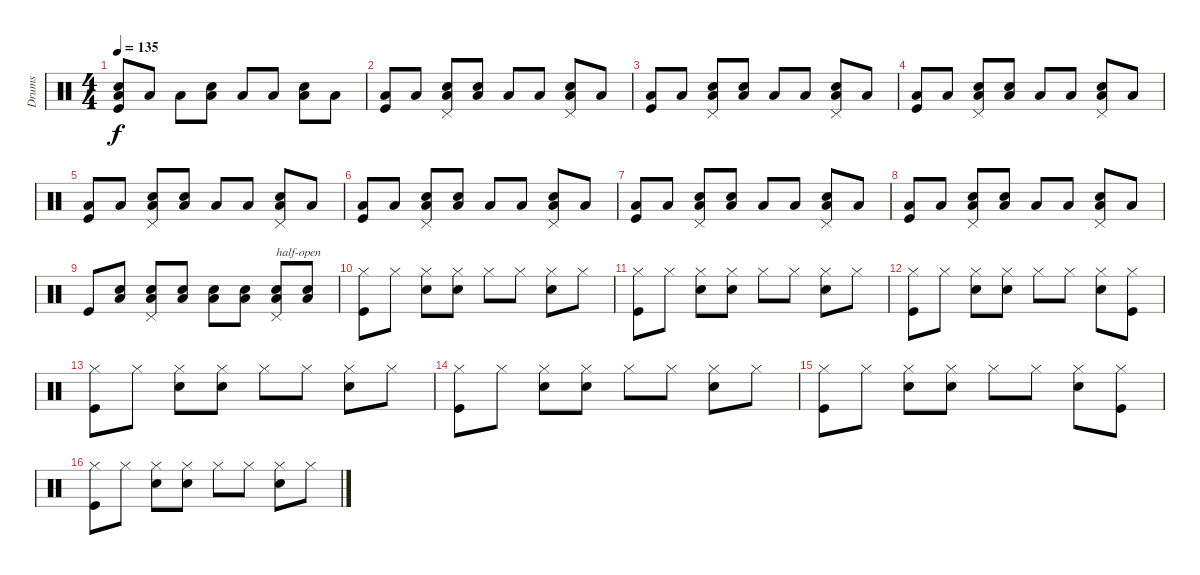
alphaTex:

\track ("Drums" "Drums") {instrument percussion}
\staff {score}
\articulation defaults
\ts (4 4)
\tempo 135
\clef neutral
\ks c
("Snare (hit) 2" "Low Floor Tom (hit)" "Kick (hit)").8{dy f} "Low Floor Tom (hit)".8 "Low Floor Tom (hit)".8 ("Snare (hit) 2" "Low Floor Tom (hit)").8 "Low Floor Tom (hit)".8 "Low Floor Tom (hit)".8 ("Snare (hit) 2" "Low Floor Tom (hit)").8 "Low Floor Tom (hit)".8 |
("Low Floor Tom (hit)" "Kick (hit)").8 "Low Floor Tom (hit)".8 ("Pedal Hi-Hat (hit)" "Snare (hit) 2" "Low Floor Tom (hit)").8 ("Snare (hit) 2" "Low Floor Tom (hit)").8 "Low Floor Tom (hit)".8 "Low Floor Tom (hit)".8 ("Pedal Hi-Hat (hit)" "Snare (hit) 2" "Low Floor Tom (hit)").8 "Low Floor Tom (hit)".8 |
("Low Floor Tom (hit)" "Kick (hit)").8 "Low Floor Tom (hit)".8 ("Pedal Hi-Hat (hit)" "Snare (hit) 2" "Low Floor Tom (hit)").8 ("Snare (hit) 2" "Low Floor Tom (hit)").8 "Low Floor Tom (hit)".8 "Low Floor Tom (hit)".8 ("Pedal Hi-Hat (hit)" "Snare (hit) 2" "Low Floor Tom (hit)").8 "Low Floor Tom (hit)".8 |
("Low Floor Tom (hit)" "Kick (hit)").8 "Low Floor Tom (hit)".8 ("Pedal Hi-Hat (hit)" "Snare (hit) 2" "Low Floor Tom (hit)").8 ("Snare (hit) 2" "Low Floor Tom (hit)").8 "Low Floor Tom (hit)".8 "Low Floor Tom (hit)".8 ("Pedal Hi-Hat (hit)" "Snare (hit) 2" "Low Floor Tom (hit)").8 "Low Floor Tom (hit)".8 |
("Low Floor Tom (hit)" "Kick (hit)").8 "Low Floor Tom (hit)".8 ("Pedal Hi-Hat (hit)" "Snare (hit) 2" "Low Floor Tom (hit)").8 ("Snare (hit) 2" "Low Floor Tom (hit)").8 "Low Floor Tom (hit)".8 "Low Floor Tom (hit)".8 ("Pedal Hi-Hat (hit)" "Snare (hit) 2" "Low Floor Tom (hit)").8 "Low Floor Tom (hit)".8 |
("Low Floor Tom (hit)" "Kick (hit)").8 "Low Floor Tom (hit)".8 ("Pedal Hi-Hat (hit)" "Snare (hit) 2" "Low Floor Tom (hit)").8 ("Snare (hit) 2" "Low Floor Tom (hit)").8 "Low Floor Tom (hit)".8 "Low Floor Tom (hit)".8 ("Pedal Hi-Hat (hit)" "Snare (hit) 2" "Low Floor Tom (hit)").8 "Low Floor Tom (hit)".8 |
("Low Floor Tom (hit)" "Kick (hit)").8 "Low Floor Tom (hit)".8 ("Pedal Hi-Hat (hit)" "Snare (hit) 2" "Low Floor Tom (hit)").8 ("Snare (hit) 2" "Low Floor Tom (hit)").8 "Low Floor Tom (hit)".8 "Low Floor Tom (hit)".8 ("Pedal Hi-Hat (hit)" "Snare (hit) 2" "Low Floor Tom (hit)").8 "Low Floor Tom (hit)".8 |
("Low Floor Tom (hit)" "Kick (hit)").8 "Low Floor Tom (hit)".8 ("Pedal Hi-Hat (hit)" "Snare (hit) 2" "Low Floor Tom (hit)").8 ("Snare (hit) 2" "Low Floor Tom (hit)").8 "Low Floor Tom (hit)".8 "Low Floor Tom (hit)".8 ("Pedal Hi-Hat (hit)" "Snare (hit) 2" "Low Floor Tom (hit)").8 "Low Floor Tom (hit)".8 |
"Kick (hit)".8 ("Snare (hit) 2" "Low Floor Tom (hit)").8 ("Pedal Hi-Hat (hit)" "Snare (hit) 2" "Low Floor Tom (hit)").8 ("Snare (hit) 2" "Low Floor Tom (hit)").8 ("Snare (hit) 2" "Low Floor Tom (hit)").8 ("Snare (hit) 2" "Low Floor Tom (hit)").8 ("Pedal Hi-Hat (hit)" "Snare (hit) 2" "Low Floor Tom (hit)").8{txt "half-open"} ("Snare (hit) 2" "Low Floor Tom (hit)").8 |
("Hi-Hat (closed)" "Kick (hit)").8 "Hi-Hat (closed)".8 ("Hi-Hat (closed)" "Snare (hit) 2").8 ("Hi-Hat (closed)" "Snare (hit) 2").8 "Hi-Hat (closed)".8 "Hi-Hat (closed)".8 ("Hi-Hat (closed)" "Snare (hit) 2").8 "Hi-Hat (closed)".8 |
("Hi-Hat (closed)" "Kick (hit)").8 "Hi-Hat (closed)".8 ("Hi-Hat (closed)" "Snare (hit) 2").8 ("Hi-Hat (closed)" "Snare (hit) 2").8 "Hi-Hat (closed)".8 "Hi-Hat (closed)".8 ("Hi-Hat (closed)" "Snare (hit) 2").8 "Hi-Hat (closed)".8 |
("Hi-Hat (closed)" "Kick (hit)").8 "Hi-Hat (closed)".8 ("Hi-Hat (closed)" "Snare (hit) 2").8 ("Hi-Hat (closed)" "Snare (hit) 2").8 "Hi-Hat (closed)".8 "Hi-Hat (closed)".8 ("Hi-Hat (closed)" "Snare (hit) 2").8 ("Hi-Hat (closed)" "Kick (hit)").8 |
("Hi-Hat (closed)" "Kick (hit)").8 "Hi-Hat (closed)".8 ("Hi-Hat (closed)" "Snare (hit) 2").8 ("Hi-Hat (closed)" "Snare (hit) 2").8 "Hi-Hat (closed)".8 "Hi-Hat (closed)".8 ("Hi-Hat (closed)" "Snare (hit) 2").8 "Hi-Hat (closed)".8 |
("Hi-Hat (closed)" "Kick (hit)").8 "Hi-Hat (closed)".8 ("Hi-Hat (closed)" "Snare (hit) 2").8 ("Hi-Hat (closed)" "Snare (hit) 2").8 "Hi-Hat (closed)".8 "Hi-Hat (closed)".8 ("Hi-Hat (closed)" "Snare (hit) 2").8 "Hi-Hat (closed)".8 |
("Hi-Hat (closed)" "Kick (hit)").8 "Hi-Hat (closed)".8 ("Hi-Hat (closed)" "Snare (hit) 2").8 ("Hi-Hat (closed)" "Snare (hit) 2").8 "Hi-Hat (closed)".8 "Hi-Hat (closed)".8 ("Hi-Hat (closed)" "Snare (hit) 2").8 ("Hi-Hat (closed)" "Kick (hit)").8 |
("Hi-Hat (closed)" "Kick (hit)").8 "Hi-Hat (closed)".8 ("Hi-Hat (closed)" "Snare (hit) 2").8 ("Hi-Hat (closed)" "Snare (hit) 2").8 "Hi-Hat (closed)".8 "Hi-Hat (closed)".8 ("Hi-Hat (closed)" "Snare (hit) 2").8 "Hi-Hat (closed)".8
